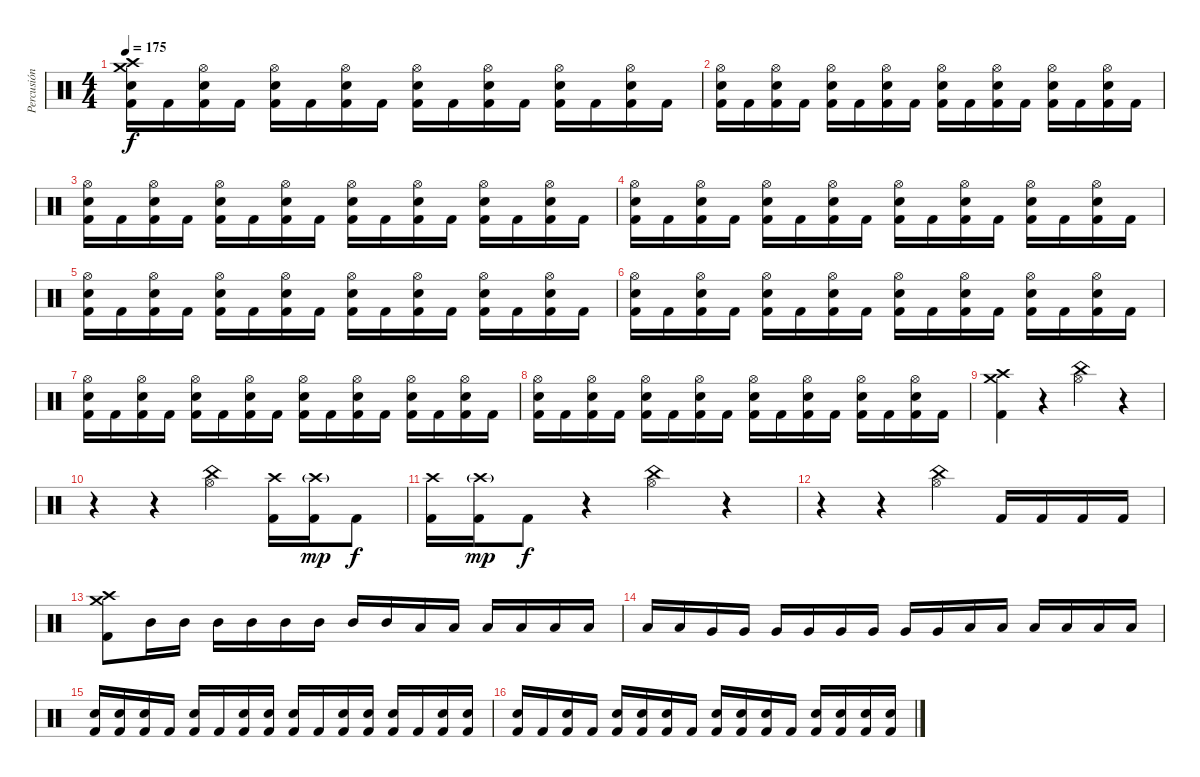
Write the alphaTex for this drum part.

\track ("Percusión" "Percusión") {instrument percussion}
\staff {score}
\articulation defaults
\ts (4 4)
\tempo 175
\clef neutral
\ks c
("Crash medium (hit)" "Crash high (hit)" "Electric Snare (hit)" "Kick (hit) 2").16{dy f} "Kick (hit) 2".16 ("Hi-Hat (open)" "Electric Snare (hit)" "Kick (hit) 2").16 "Kick (hit) 2".16 ("Hi-Hat (open)" "Electric Snare (hit)" "Kick (hit) 2").16 "Kick (hit) 2".16 ("Hi-Hat (open)" "Electric Snare (hit)" "Kick (hit) 2").16 "Kick (hit) 2".16 ("Hi-Hat (open)" "Electric Snare (hit)" "Kick (hit) 2").16 "Kick (hit) 2".16 ("Hi-Hat (open)" "Electric Snare (hit)" "Kick (hit) 2").16 "Kick (hit) 2".16 ("Hi-Hat (open)" "Electric Snare (hit)" "Kick (hit) 2").16 "Kick (hit) 2".16 ("Hi-Hat (open)" "Electric Snare (hit)" "Kick (hit) 2").16 "Kick (hit) 2".16 |
("Hi-Hat (open)" "Electric Snare (hit)" "Kick (hit) 2").16 "Kick (hit) 2".16 ("Hi-Hat (open)" "Electric Snare (hit)" "Kick (hit) 2").16 "Kick (hit) 2".16 ("Hi-Hat (open)" "Electric Snare (hit)" "Kick (hit) 2").16 "Kick (hit) 2".16 ("Hi-Hat (open)" "Electric Snare (hit)" "Kick (hit) 2").16 "Kick (hit) 2".16 ("Hi-Hat (open)" "Electric Snare (hit)" "Kick (hit) 2").16 "Kick (hit) 2".16 ("Hi-Hat (open)" "Electric Snare (hit)" "Kick (hit) 2").16 "Kick (hit) 2".16 ("Hi-Hat (open)" "Electric Snare (hit)" "Kick (hit) 2").16 "Kick (hit) 2".16 ("Hi-Hat (open)" "Electric Snare (hit)" "Kick (hit) 2").16 "Kick (hit) 2".16 |
("Hi-Hat (open)" "Electric Snare (hit)" "Kick (hit) 2").16 "Kick (hit) 2".16 ("Hi-Hat (open)" "Electric Snare (hit)" "Kick (hit) 2").16 "Kick (hit) 2".16 ("Hi-Hat (open)" "Electric Snare (hit)" "Kick (hit) 2").16 "Kick (hit) 2".16 ("Hi-Hat (open)" "Electric Snare (hit)" "Kick (hit) 2").16 "Kick (hit) 2".16 ("Hi-Hat (open)" "Electric Snare (hit)" "Kick (hit) 2").16 "Kick (hit) 2".16 ("Hi-Hat (open)" "Electric Snare (hit)" "Kick (hit) 2").16 "Kick (hit) 2".16 ("Hi-Hat (open)" "Electric Snare (hit)" "Kick (hit) 2").16 "Kick (hit) 2".16 ("Hi-Hat (open)" "Electric Snare (hit)" "Kick (hit) 2").16 "Kick (hit) 2".16 |
("Hi-Hat (open)" "Electric Snare (hit)" "Kick (hit) 2").16 "Kick (hit) 2".16 ("Hi-Hat (open)" "Electric Snare (hit)" "Kick (hit) 2").16 "Kick (hit) 2".16 ("Hi-Hat (open)" "Electric Snare (hit)" "Kick (hit) 2").16 "Kick (hit) 2".16 ("Hi-Hat (open)" "Electric Snare (hit)" "Kick (hit) 2").16 "Kick (hit) 2".16 ("Hi-Hat (open)" "Electric Snare (hit)" "Kick (hit) 2").16 "Kick (hit) 2".16 ("Hi-Hat (open)" "Electric Snare (hit)" "Kick (hit) 2").16 "Kick (hit) 2".16 ("Hi-Hat (open)" "Electric Snare (hit)" "Kick (hit) 2").16 "Kick (hit) 2".16 ("Hi-Hat (open)" "Electric Snare (hit)" "Kick (hit) 2").16 "Kick (hit) 2".16 |
("Hi-Hat (open)" "Electric Snare (hit)" "Kick (hit) 2").16 "Kick (hit) 2".16 ("Hi-Hat (open)" "Electric Snare (hit)" "Kick (hit) 2").16 "Kick (hit) 2".16 ("Hi-Hat (open)" "Electric Snare (hit)" "Kick (hit) 2").16 "Kick (hit) 2".16 ("Hi-Hat (open)" "Electric Snare (hit)" "Kick (hit) 2").16 "Kick (hit) 2".16 ("Hi-Hat (open)" "Electric Snare (hit)" "Kick (hit) 2").16 "Kick (hit) 2".16 ("Hi-Hat (open)" "Electric Snare (hit)" "Kick (hit) 2").16 "Kick (hit) 2".16 ("Hi-Hat (open)" "Electric Snare (hit)" "Kick (hit) 2").16 "Kick (hit) 2".16 ("Hi-Hat (open)" "Electric Snare (hit)" "Kick (hit) 2").16 "Kick (hit) 2".16 |
("Hi-Hat (open)" "Electric Snare (hit)" "Kick (hit) 2").16 "Kick (hit) 2".16 ("Hi-Hat (open)" "Electric Snare (hit)" "Kick (hit) 2").16 "Kick (hit) 2".16 ("Hi-Hat (open)" "Electric Snare (hit)" "Kick (hit) 2").16 "Kick (hit) 2".16 ("Hi-Hat (open)" "Electric Snare (hit)" "Kick (hit) 2").16 "Kick (hit) 2".16 ("Hi-Hat (open)" "Electric Snare (hit)" "Kick (hit) 2").16 "Kick (hit) 2".16 ("Hi-Hat (open)" "Electric Snare (hit)" "Kick (hit) 2").16 "Kick (hit) 2".16 ("Hi-Hat (open)" "Electric Snare (hit)" "Kick (hit) 2").16 "Kick (hit) 2".16 ("Hi-Hat (open)" "Electric Snare (hit)" "Kick (hit) 2").16 "Kick (hit) 2".16 |
("Hi-Hat (open)" "Electric Snare (hit)" "Kick (hit) 2").16 "Kick (hit) 2".16 ("Hi-Hat (open)" "Electric Snare (hit)" "Kick (hit) 2").16 "Kick (hit) 2".16 ("Hi-Hat (open)" "Electric Snare (hit)" "Kick (hit) 2").16 "Kick (hit) 2".16 ("Hi-Hat (open)" "Electric Snare (hit)" "Kick (hit) 2").16 "Kick (hit) 2".16 ("Hi-Hat (open)" "Electric Snare (hit)" "Kick (hit) 2").16 "Kick (hit) 2".16 ("Hi-Hat (open)" "Electric Snare (hit)" "Kick (hit) 2").16 "Kick (hit) 2".16 ("Hi-Hat (open)" "Electric Snare (hit)" "Kick (hit) 2").16 "Kick (hit) 2".16 ("Hi-Hat (open)" "Electric Snare (hit)" "Kick (hit) 2").16 "Kick (hit) 2".16 |
("Hi-Hat (open)" "Electric Snare (hit)" "Kick (hit) 2").16 "Kick (hit) 2".16 ("Hi-Hat (open)" "Electric Snare (hit)" "Kick (hit) 2").16 "Kick (hit) 2".16 ("Hi-Hat (open)" "Electric Snare (hit)" "Kick (hit) 2").16 "Kick (hit) 2".16 ("Hi-Hat (open)" "Electric Snare (hit)" "Kick (hit) 2").16 "Kick (hit) 2".16 ("Hi-Hat (open)" "Electric Snare (hit)" "Kick (hit) 2").16 "Kick (hit) 2".16 ("Hi-Hat (open)" "Electric Snare (hit)" "Kick (hit) 2").16 "Kick (hit) 2".16 ("Hi-Hat (open)" "Electric Snare (hit)" "Kick (hit) 2").16 "Kick (hit) 2".16 ("Hi-Hat (open)" "Electric Snare (hit)" "Kick (hit) 2").16 "Kick (hit) 2".16 |
("Crash high (hit)" "Crash medium (hit)" "Kick (hit) 2").4 r.4 ("China (hit)" "Hi-Hat (open)").4 r.4 |
r.4 r.4 ("China (hit)" "Hi-Hat (open)").4 ("Crash high (hit)" "Kick (hit) 2").16 ("Crash high (hit)"{g} "Kick (hit) 2").16{dy mp} "Kick (hit) 2".8{dy f} |
("Crash high (hit)" "Kick (hit) 2").16 ("Crash high (hit)"{g} "Kick (hit) 2").16{dy mp} "Kick (hit) 2".8{dy f} r.4 ("China (hit)" "Hi-Hat (open)").4 r.4 |
r.4 r.4 ("China (hit)" "Hi-Hat (open)").4 "Kick (hit) 2".16 "Kick (hit) 2".16 "Kick (hit) 2".16 "Kick (hit) 2".16 |
("Crash high (hit)" "Crash medium (hit)" "Kick (hit) 2").8 "Mid Tom (hit)".16 "Mid Tom (hit)".16 "Mid Tom (hit)".16 "Mid Tom (hit)".16 "Mid Tom (hit)".16 "Mid Tom (hit)".16 "Mid Tom (hit)".16 "Mid Tom (hit)".16 "Low Tom (hit)".16 "Low Tom (hit)".16 "Low Tom (hit)".16 "Low Tom (hit)".16 "Low Tom (hit)".16 "Low Tom (hit)".16 |
"Low Tom (hit)".16 "Low Tom (hit)".16 "Very Low Tom (hit)".16 "Very Low Tom (hit)".16 "Very Low Tom (hit)".16 "Very Low Tom (hit)".16 "Very Low Tom (hit)".16 "Very Low Tom (hit)".16 "Very Low Tom (hit)".16 "Very Low Tom (hit)".16 "Low Floor Tom (hit)".16 "Low Floor Tom (hit)".16 "Low Floor Tom (hit)".16 "Low Floor Tom (hit)".16 "Low Floor Tom (hit)".16 "Low Floor Tom (hit)".16 |
("Electric Snare (hit)" "Kick (hit) 2").16 ("Electric Snare (hit)" "Kick (hit) 2").16 ("Electric Snare (hit)" "Kick (hit) 2").16 "Kick (hit) 2".16 ("Electric Snare (hit)" "Kick (hit) 2").16 "Kick (hit) 2".16 ("Electric Snare (hit)" "Kick (hit) 2").16 ("Electric Snare (hit)" "Kick (hit) 2").16 ("Electric Snare (hit)" "Kick (hit) 2").16 "Kick (hit) 2".16 ("Electric Snare (hit)" "Kick (hit) 2").16 ("Electric Snare (hit)" "Kick (hit) 2").16 ("Electric Snare (hit)" "Kick (hit) 2").16 "Kick (hit) 2".16 ("Electric Snare (hit)" "Kick (hit) 2").16 ("Electric Snare (hit)" "Kick (hit) 2").16 |
("Electric Snare (hit)" "Kick (hit) 2").16 "Kick (hit) 2".16 ("Electric Snare (hit)" "Kick (hit) 2").16 "Kick (hit) 2".16 ("Electric Snare (hit)" "Kick (hit) 2").16 ("Electric Snare (hit)" "Kick (hit) 2").16 ("Electric Snare (hit)" "Kick (hit) 2").16 "Kick (hit) 2".16 ("Electric Snare (hit)" "Kick (hit) 2").16 ("Electric Snare (hit)" "Kick (hit) 2").16 ("Electric Snare (hit)" "Kick (hit) 2").16 "Kick (hit) 2".16 ("Electric Snare (hit)" "Kick (hit) 2").16 ("Electric Snare (hit)" "Kick (hit) 2").16 ("Electric Snare (hit)" "Kick (hit) 2").16 ("Electric Snare (hit)" "Kick (hit) 2").16
